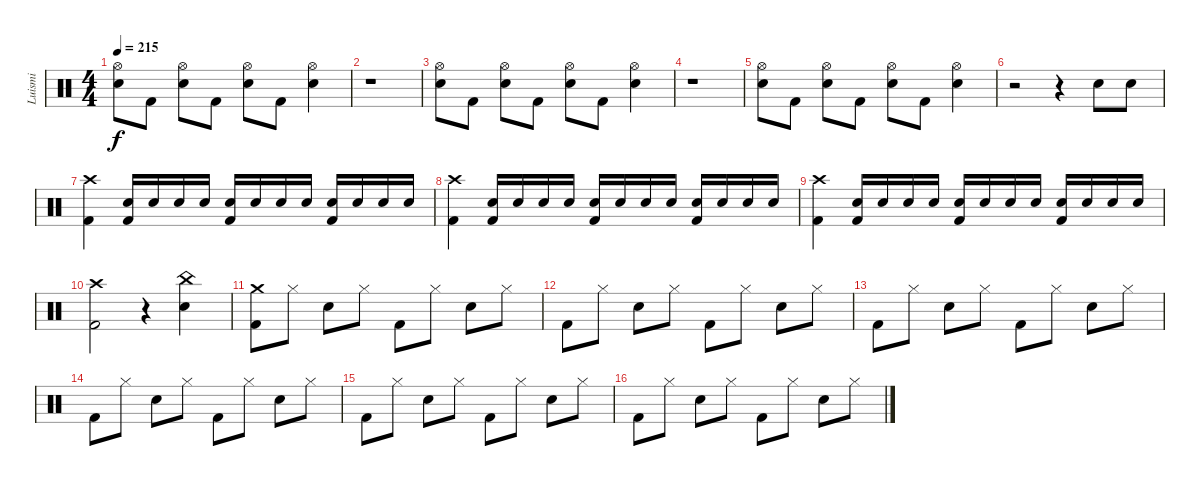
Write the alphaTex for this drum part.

\track ("Luismi" "Luismi") {instrument percussion}
\staff {score}
\articulation defaults
\ts (4 4)
\tempo 215
\clef neutral
\ks c
("Hi-Hat (open)" "Snare (hit) 2").8{dy f} "Kick (hit) 2".8 ("Hi-Hat (open)" "Snare (hit) 2").8 "Kick (hit) 2".8 ("Hi-Hat (open)" "Snare (hit) 2").8 "Kick (hit) 2".8 ("Hi-Hat (open)" "Snare (hit) 2").4 |
r.1 |
("Hi-Hat (open)" "Snare (hit) 2").8 "Kick (hit) 2".8 ("Hi-Hat (open)" "Snare (hit) 2").8 "Kick (hit) 2".8 ("Hi-Hat (open)" "Snare (hit) 2").8 "Kick (hit) 2".8 ("Hi-Hat (open)" "Snare (hit) 2").4 |
r.1 |
("Hi-Hat (open)" "Snare (hit) 2").8 "Kick (hit) 2".8 ("Hi-Hat (open)" "Snare (hit) 2").8 "Kick (hit) 2".8 ("Hi-Hat (open)" "Snare (hit) 2").8 "Kick (hit) 2".8 ("Hi-Hat (open)" "Snare (hit) 2").4 |
r.2 r.4 "Snare (hit) 2".8 "Snare (hit) 2".8 |
("Crash high (hit)" "Kick (hit) 2").4 ("Kick (hit) 2" "Electric Snare (hit)").16 "Electric Snare (hit)".16 "Electric Snare (hit)".16 "Electric Snare (hit)".16 ("Kick (hit) 2" "Electric Snare (hit)").16 "Electric Snare (hit)".16 "Electric Snare (hit)".16 "Electric Snare (hit)".16 ("Kick (hit) 2" "Electric Snare (hit)").16 "Electric Snare (hit)".16 "Electric Snare (hit)".16 "Electric Snare (hit)".16 |
("Crash high (hit)" "Kick (hit) 2").4 ("Kick (hit) 2" "Electric Snare (hit)").16 "Electric Snare (hit)".16 "Electric Snare (hit)".16 "Electric Snare (hit)".16 ("Kick (hit) 2" "Electric Snare (hit)").16 "Electric Snare (hit)".16 "Electric Snare (hit)".16 "Electric Snare (hit)".16 ("Kick (hit) 2" "Electric Snare (hit)").16 "Electric Snare (hit)".16 "Electric Snare (hit)".16 "Electric Snare (hit)".16 |
("Crash high (hit)" "Kick (hit) 2").4 ("Kick (hit) 2" "Electric Snare (hit)").16 "Electric Snare (hit)".16 "Electric Snare (hit)".16 "Electric Snare (hit)".16 ("Kick (hit) 2" "Electric Snare (hit)").16 "Electric Snare (hit)".16 "Electric Snare (hit)".16 "Electric Snare (hit)".16 ("Kick (hit) 2" "Electric Snare (hit)").16 "Electric Snare (hit)".16 "Electric Snare (hit)".16 "Electric Snare (hit)".16 |
("Crash high (hit)" "Kick (hit) 2").2 r.4 ("China (hit)" "Snare (hit) 2").4 |
("Crash medium (hit)" "Kick (hit) 2").8 "Hi-Hat (closed)".8 "Snare (hit) 2".8 "Hi-Hat (closed)".8 "Kick (hit) 2".8 "Hi-Hat (closed)".8 "Snare (hit) 2".8 "Hi-Hat (closed)".8 |
"Kick (hit) 2".8 "Hi-Hat (closed)".8 "Snare (hit) 2".8 "Hi-Hat (closed)".8 "Kick (hit) 2".8 "Hi-Hat (closed)".8 "Snare (hit) 2".8 "Hi-Hat (closed)".8 |
"Kick (hit) 2".8 "Hi-Hat (closed)".8 "Snare (hit) 2".8 "Hi-Hat (closed)".8 "Kick (hit) 2".8 "Hi-Hat (closed)".8 "Snare (hit) 2".8 "Hi-Hat (closed)".8 |
"Kick (hit) 2".8 "Hi-Hat (closed)".8 "Snare (hit) 2".8 "Hi-Hat (closed)".8 "Kick (hit) 2".8 "Hi-Hat (closed)".8 "Snare (hit) 2".8 "Hi-Hat (closed)".8 |
"Kick (hit) 2".8 "Hi-Hat (closed)".8 "Snare (hit) 2".8 "Hi-Hat (closed)".8 "Kick (hit) 2".8 "Hi-Hat (closed)".8 "Snare (hit) 2".8 "Hi-Hat (closed)".8 |
"Kick (hit) 2".8 "Hi-Hat (closed)".8 "Snare (hit) 2".8 "Hi-Hat (closed)".8 "Kick (hit) 2".8 "Hi-Hat (closed)".8 "Snare (hit) 2".8 "Hi-Hat (closed)".8
